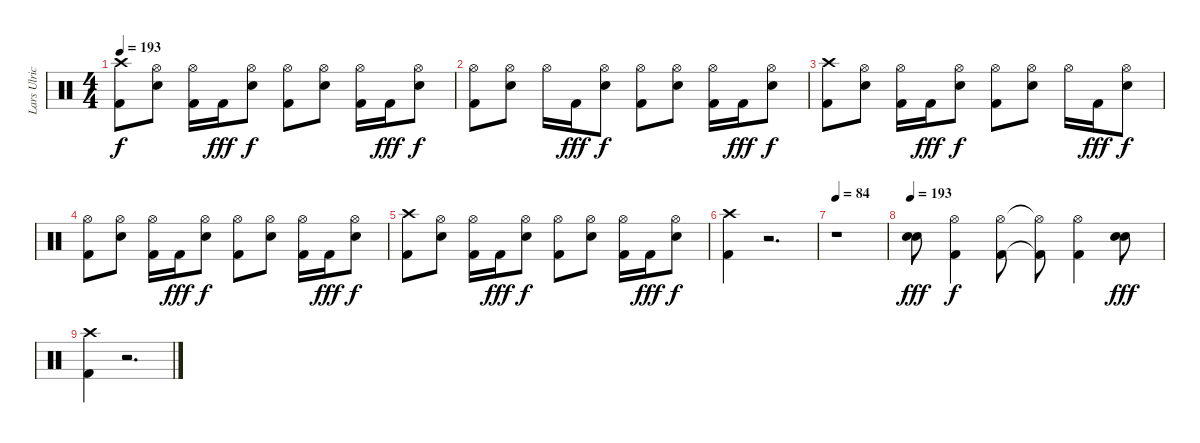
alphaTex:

\track ("Lars Ulrich - Drums" "Lars Ulric") {instrument percussion}
\staff {score}
\articulation defaults
\ts (4 4)
\tempo 193
\clef neutral
\ks c
("Crash high (hit)" "Kick (hit) 2").8{dy f} ("Hi-Hat (open)" "Snare (hit) 2").8 ("Hi-Hat (open)" "Kick (hit) 2").16 "Kick (hit) 2".16{dy fff} ("Hi-Hat (open)" "Snare (hit) 2").8{dy f} ("Hi-Hat (open)" "Kick (hit) 2").8 ("Hi-Hat (open)" "Snare (hit) 2").8 ("Hi-Hat (open)" "Kick (hit) 2").16 "Kick (hit) 2".16{dy fff} ("Hi-Hat (open)" "Snare (hit) 2").8{dy f} |
("Hi-Hat (open)" "Kick (hit) 2").8 ("Hi-Hat (open)" "Snare (hit) 2").8 "Hi-Hat (open)".16 "Kick (hit) 2".16{dy fff} ("Hi-Hat (open)" "Snare (hit) 2").8{dy f} ("Hi-Hat (open)" "Kick (hit) 2").8 ("Hi-Hat (open)" "Snare (hit) 2").8 ("Hi-Hat (open)" "Kick (hit) 2").16 "Kick (hit) 2".16{dy fff} ("Hi-Hat (open)" "Snare (hit) 2").8{dy f} |
("Crash high (hit)" "Kick (hit) 2").8 ("Hi-Hat (open)" "Snare (hit) 2").8 ("Hi-Hat (open)" "Kick (hit) 2").16 "Kick (hit) 2".16{dy fff} ("Hi-Hat (open)" "Snare (hit) 2").8{dy f} ("Hi-Hat (open)" "Kick (hit) 2").8 ("Hi-Hat (open)" "Snare (hit) 2").8 "Hi-Hat (open)".16 "Kick (hit) 2".16{dy fff} ("Hi-Hat (open)" "Snare (hit) 2").8{dy f} |
("Hi-Hat (open)" "Kick (hit) 2").8 ("Hi-Hat (open)" "Snare (hit) 2").8 ("Hi-Hat (open)" "Kick (hit) 2").16 "Kick (hit) 2".16{dy fff} ("Hi-Hat (open)" "Snare (hit) 2").8{dy f} ("Hi-Hat (open)" "Kick (hit) 2").8 ("Hi-Hat (open)" "Snare (hit) 2").8 ("Hi-Hat (open)" "Kick (hit) 2").16 "Kick (hit) 2".16{dy fff} ("Hi-Hat (open)" "Snare (hit) 2").8{dy f} |
("Crash high (hit)" "Kick (hit) 2").8 ("Hi-Hat (open)" "Snare (hit) 2").8 ("Hi-Hat (open)" "Kick (hit) 2").16 "Kick (hit) 2".16{dy fff} ("Hi-Hat (open)" "Snare (hit) 2").8{dy f} ("Hi-Hat (open)" "Kick (hit) 2").8 ("Hi-Hat (open)" "Snare (hit) 2").8 ("Hi-Hat (open)" "Kick (hit) 2").16 "Kick (hit) 2".16{dy fff} ("Hi-Hat (open)" "Snare (hit) 2").8{dy f} |
("Crash high (hit)" "Kick (hit) 2").4 r.2{d} |
\tempo 84
r.1 |
\tempo 193
("Snare (hit) 2" "Snare (hit) 2").8{dy fff} ("Hi-Hat (open)" "Kick (hit) 2").4{dy f} ("Hi-Hat (open)" "Kick (hit) 2").8 ("Hi-Hat (open)"{t} "Kick (hit) 2"{t}).8 ("Hi-Hat (open)" "Kick (hit) 2").4 ("Snare (hit) 2" "Snare (hit) 2").8{dy fff} |
("Crash high (hit)" "Kick (hit) 2").4 r.2{d}
